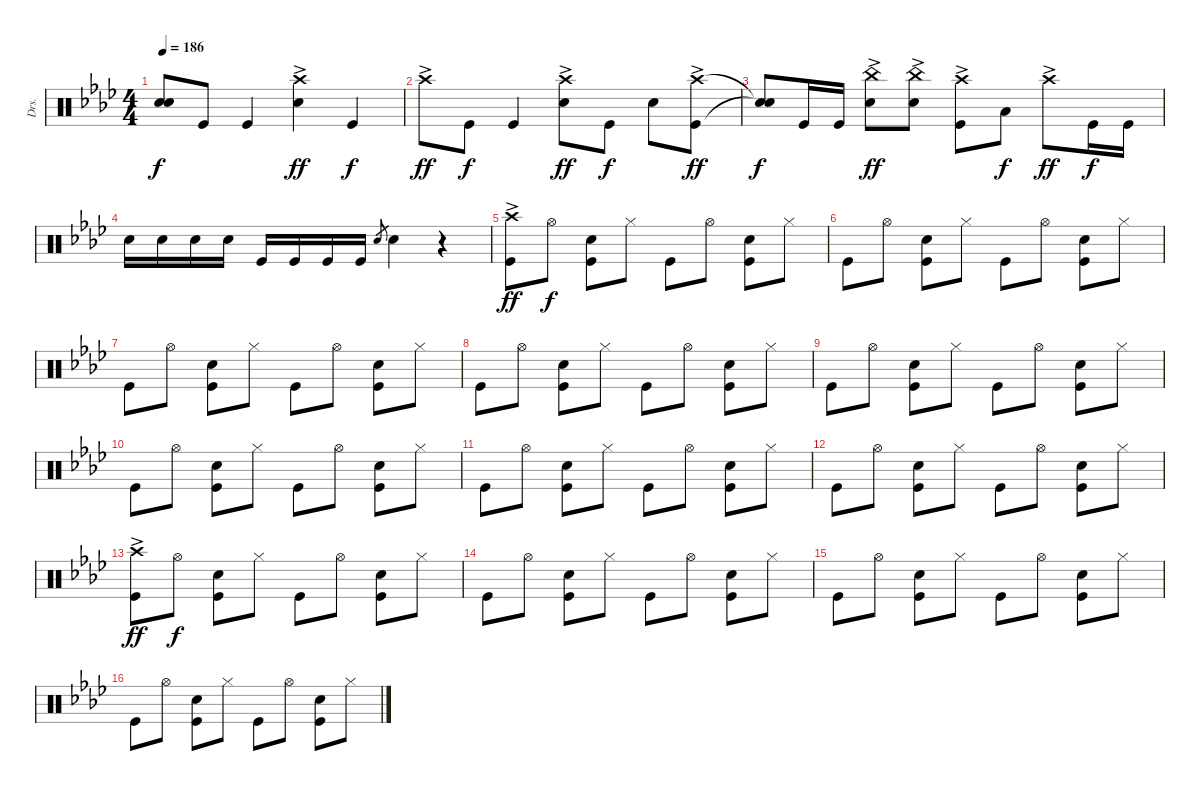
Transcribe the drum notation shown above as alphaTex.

\track ("Drs." "Drs.") {instrument percussion}
\staff {score}
\articulation defaults
\ts (4 4)
\tempo 186
\clef neutral
\ks ab
("Snare (hit)"{t} "Snare (hit)"{t}).8{dy f} "Kick (hit)".8 "Kick (hit)".4 ("Crash high (hit)"{ac} "Snare (hit) 2").4{dy ff} "Kick (hit)".4{dy f} |
"Crash high (hit)"{ac}.8{dy ff} "Kick (hit)".8{dy f} "Kick (hit)".4 ("Crash high (hit)"{ac} "Snare (hit) 2").8{dy ff} "Kick (hit)".8{dy f} "Snare (hit) 2".8 ("Crash high (hit)"{ac} "Kick (hit)").8{dy ff} |
("Snare (hit)"{t} "Snare (hit)"{t}).8{dy f} "Kick (hit)".16 "Kick (hit)".16 ("China (hit)"{ac} "Snare (hit) 2").8{dy ff} ("China (hit)"{ac} "Snare (hit) 2").8 ("Crash high (hit)"{ac} "Kick (hit)").8 "Low Tom (hit)".8{dy f} "Crash high (hit)"{ac}.8{dy ff} "Kick (hit)".16{dy f} "Kick (hit)".16 |
"Snare (hit) 2".16 "Snare (hit) 2".16 "Snare (hit) 2".16 "Snare (hit) 2".16 "Kick (hit)".16 "Kick (hit)".16 "Kick (hit)".16 "Kick (hit)".16 "Snare (hit) 2".8{gr} "Snare (hit) 2".4 r.4 |
("Crash high (hit)"{ac} "Kick (hit)").8{dy ff} "Hi-Hat (open)".8{dy f} ("Snare (hit) 2" "Kick (hit)").8 "Hi-Hat (closed)".8 "Kick (hit)".8 "Hi-Hat (open)".8 ("Snare (hit) 2" "Kick (hit)").8 "Hi-Hat (closed)".8 |
"Kick (hit)".8 "Hi-Hat (open)".8 ("Snare (hit) 2" "Kick (hit)").8 "Hi-Hat (closed)".8 "Kick (hit)".8 "Hi-Hat (open)".8 ("Snare (hit) 2" "Kick (hit)").8 "Hi-Hat (closed)".8 |
"Kick (hit)".8 "Hi-Hat (open)".8 ("Snare (hit) 2" "Kick (hit)").8 "Hi-Hat (closed)".8 "Kick (hit)".8 "Hi-Hat (open)".8 ("Snare (hit) 2" "Kick (hit)").8 "Hi-Hat (closed)".8 |
"Kick (hit)".8 "Hi-Hat (open)".8 ("Snare (hit) 2" "Kick (hit)").8 "Hi-Hat (closed)".8 "Kick (hit)".8 "Hi-Hat (open)".8 ("Snare (hit) 2" "Kick (hit)").8 "Hi-Hat (closed)".8 |
"Kick (hit)".8 "Hi-Hat (open)".8 ("Snare (hit) 2" "Kick (hit)").8 "Hi-Hat (closed)".8 "Kick (hit)".8 "Hi-Hat (open)".8 ("Snare (hit) 2" "Kick (hit)").8 "Hi-Hat (closed)".8 |
"Kick (hit)".8 "Hi-Hat (open)".8 ("Snare (hit) 2" "Kick (hit)").8 "Hi-Hat (closed)".8 "Kick (hit)".8 "Hi-Hat (open)".8 ("Snare (hit) 2" "Kick (hit)").8 "Hi-Hat (closed)".8 |
"Kick (hit)".8 "Hi-Hat (open)".8 ("Snare (hit) 2" "Kick (hit)").8 "Hi-Hat (closed)".8 "Kick (hit)".8 "Hi-Hat (open)".8 ("Snare (hit) 2" "Kick (hit)").8 "Hi-Hat (closed)".8 |
"Kick (hit)".8 "Hi-Hat (open)".8 ("Snare (hit) 2" "Kick (hit)").8 "Hi-Hat (closed)".8 "Kick (hit)".8 "Hi-Hat (open)".8 ("Snare (hit) 2" "Kick (hit)").8 "Hi-Hat (closed)".8 |
("Crash high (hit)"{ac} "Kick (hit)").8{dy ff} "Hi-Hat (open)".8{dy f} ("Snare (hit) 2" "Kick (hit)").8 "Hi-Hat (closed)".8 "Kick (hit)".8 "Hi-Hat (open)".8 ("Snare (hit) 2" "Kick (hit)").8 "Hi-Hat (closed)".8 |
"Kick (hit)".8 "Hi-Hat (open)".8 ("Snare (hit) 2" "Kick (hit)").8 "Hi-Hat (closed)".8 "Kick (hit)".8 "Hi-Hat (open)".8 ("Snare (hit) 2" "Kick (hit)").8 "Hi-Hat (closed)".8 |
"Kick (hit)".8 "Hi-Hat (open)".8 ("Snare (hit) 2" "Kick (hit)").8 "Hi-Hat (closed)".8 "Kick (hit)".8 "Hi-Hat (open)".8 ("Snare (hit) 2" "Kick (hit)").8 "Hi-Hat (closed)".8 |
"Kick (hit)".8 "Hi-Hat (open)".8 ("Snare (hit) 2" "Kick (hit)").8 "Hi-Hat (closed)".8 "Kick (hit)".8 "Hi-Hat (open)".8 ("Snare (hit) 2" "Kick (hit)").8 "Hi-Hat (closed)".8
